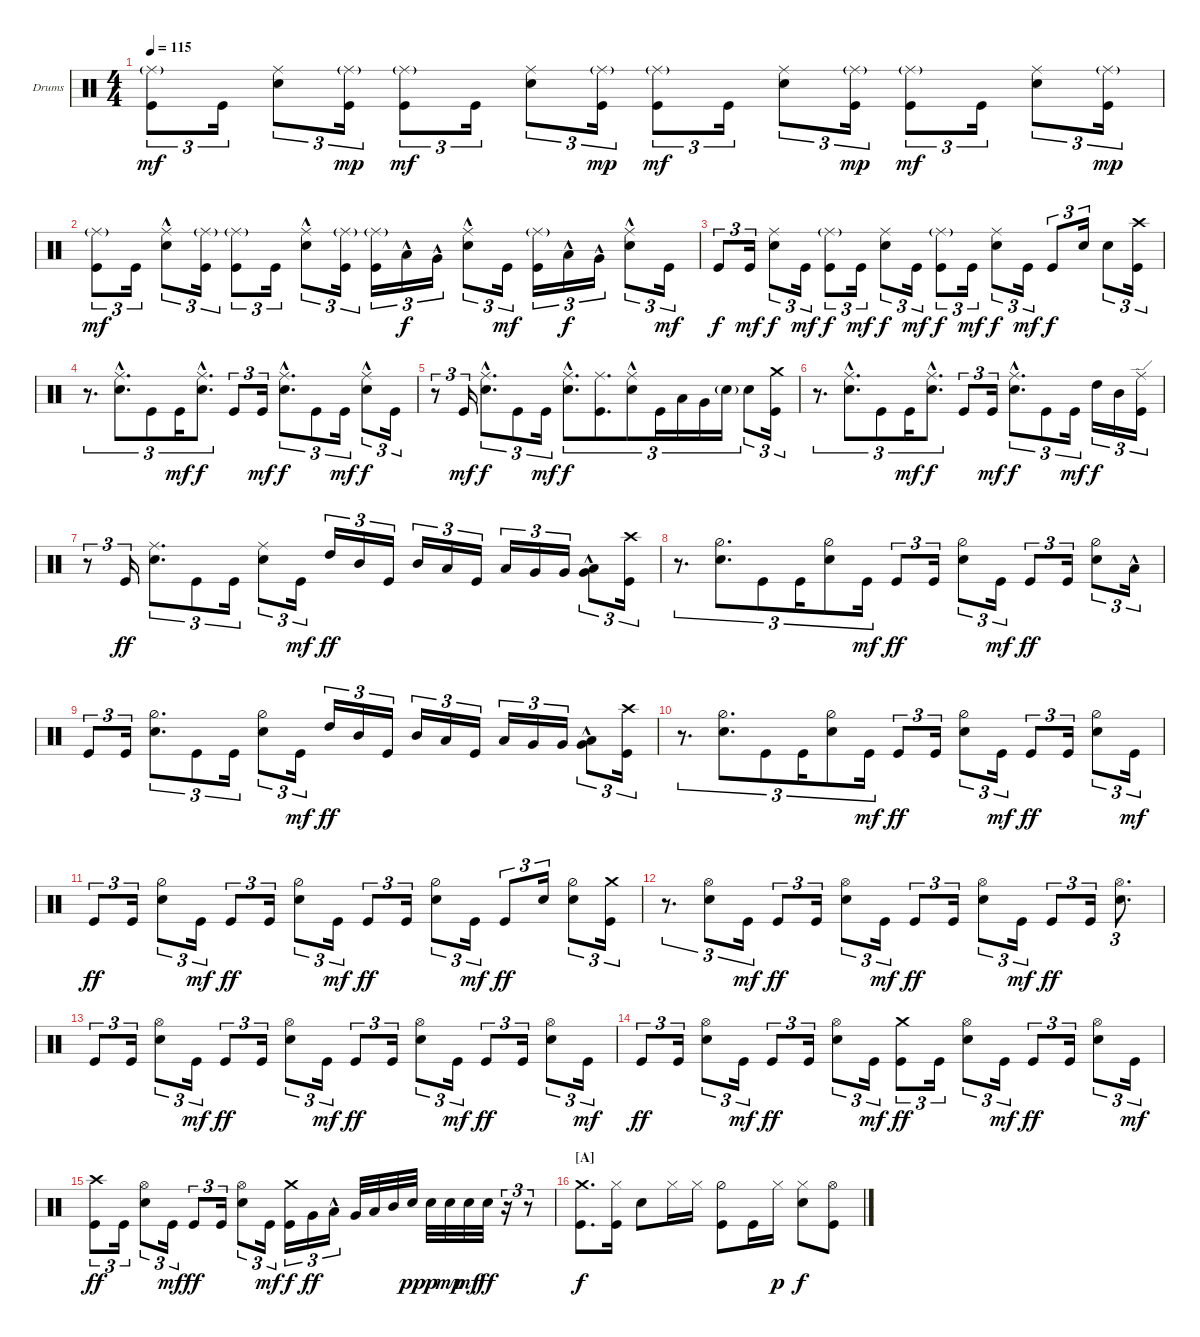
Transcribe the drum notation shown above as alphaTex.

\defaultSystemsLayout 4
\bracketExtendMode groupsimilarinstruments
\firstSystemTrackNameOrientation horizontal
\otherSystemsTrackNameOrientation horizontal
\track ("Batterie " "Drums") {instrument percussion}
\staff {score}
\articulation defaults
\ts (4 4)
\tempo 115
\clef neutral
\ks c
("Kick (hit)" "Ride (middle)"{g}).8{tu (3 2) dy mf} "Kick (hit)".16{tu (3 2)} ("Snare (hit) 2" "Ride (middle)").8{tu (3 2)} ("Kick (hit)" "Ride (middle)"{g}).16{tu (3 2) dy mp} ("Kick (hit)" "Ride (middle)"{g}).8{tu (3 2) dy mf} "Kick (hit)".16{tu (3 2)} ("Snare (hit) 2" "Ride (middle)").8{tu (3 2)} ("Kick (hit)" "Ride (middle)"{g}).16{tu (3 2) dy mp} ("Kick (hit)" "Ride (middle)"{g}).8{tu (3 2) dy mf} "Kick (hit)".16{tu (3 2)} ("Snare (hit) 2" "Ride (middle)").8{tu (3 2)} ("Kick (hit)" "Ride (middle)"{g}).16{tu (3 2) dy mp} ("Kick (hit)" "Ride (middle)"{g}).8{tu (3 2) dy mf} "Kick (hit)".16{tu (3 2)} ("Snare (hit) 2" "Ride (middle)").8{tu (3 2)} ("Kick (hit)" "Ride (middle)"{g}).16{tu (3 2) dy mp} |
("Kick (hit)" "Ride (middle)"{g}).8{tu (3 2) dy mf} "Kick (hit)".16{tu (3 2)} ("Snare (hit) 2" "Ride (middle)"{hac}).8{tu (3 2)} ("Kick (hit)" "Ride (middle)"{g}).16{tu (3 2)} ("Kick (hit)" "Ride (middle)"{g}).8{tu (3 2)} "Kick (hit)".16{tu (3 2)} ("Snare (hit) 2" "Ride (middle)"{hac}).8{tu (3 2)} ("Kick (hit)" "Ride (middle)"{g}).16{tu (3 2)} ("Kick (hit)" "Ride (middle)"{g}).16{tu (3 2)} "Low Tom (hit)"{hac}.16{tu (3 2) dy f} "Very Low Tom (hit)"{hac}.16{tu (3 2)} ("Snare (hit) 2" "Ride (middle)"{hac}).8{tu (3 2)} "Kick (hit)".16{tu (3 2) dy mf} ("Kick (hit)" "Ride (middle)"{g}).16{tu (3 2)} "Low Tom (hit)"{hac}.16{tu (3 2) dy f} "Very Low Tom (hit)"{hac}.16{tu (3 2)} ("Snare (hit) 2" "Ride (middle)"{hac}).8{tu (3 2)} "Kick (hit)".16{tu (3 2) dy mf} |
"Kick (hit)".8{tu (3 2) dy f} "Kick (hit)".16{tu (3 2) dy mf} ("Snare (hit) 2" "Ride (middle)").8{tu (3 2) dy f} "Kick (hit)".16{tu (3 2) dy mf} ("Kick (hit)" "Ride (middle)"{g}).8{tu (3 2) dy f} "Kick (hit)".16{tu (3 2) dy mf} ("Snare (hit) 2" "Ride (middle)").8{tu (3 2) dy f} "Kick (hit)".16{tu (3 2) dy mf} ("Kick (hit)" "Ride (middle)"{g}).8{tu (3 2) dy f} "Kick (hit)".16{tu (3 2) dy mf} ("Snare (hit) 2" "Ride (middle)").8{tu (3 2) dy f} "Kick (hit)".16{tu (3 2) dy mf} "Kick (hit)".8{tu (3 2) dy f} "Snare (hit) 2".16{tu (3 2)} "Snare (hit) 2".8{tu (3 2)} ("Kick (hit)" "Crash high (hit)").16{tu (3 2)} |
r.8{d tu (3 2)} ("Snare (hit) 2" "Ride (middle)"{hac}).8{d tu (3 2)} "Kick (hit)".8{tu (3 2)} "Kick (hit)".16{tu (3 2) dy mf} ("Snare (hit) 2" "Ride (middle)"{hac}).8{d tu (3 2) dy f} "Kick (hit)".8{tu (3 2)} "Kick (hit)".16{tu (3 2) dy mf} ("Snare (hit) 2" "Ride (middle)"{hac}).8{d tu (3 2) dy f} "Kick (hit)".8{tu (3 2)} "Kick (hit)".16{tu (3 2) dy mf} ("Snare (hit) 2" "Ride (middle)"{hac}).8{tu (3 2) dy f} "Kick (hit)".16{tu (3 2)} |
r.8{tu (3 2)} "Kick (hit)".16{tu (3 2) dy mf} ("Snare (hit) 2" "Ride (middle)"{hac}).8{d tu (3 2) dy f} "Kick (hit)".8{tu (3 2)} "Kick (hit)".16{tu (3 2) dy mf} ("Snare (hit) 2" "Ride (middle)"{hac}).8{d tu (3 2) dy f} ("Kick (hit)" "Ride (middle)").8{d tu (3 2)} ("Snare (hit) 2" "Ride (middle)"{hac}).8{tu (3 2)} "Kick (hit)".16{tu (3 2)} "Low Tom (hit)".16{tu (3 2)} "Very Low Tom (hit)".16{tu (3 2)} "Snare (hit) 2"{g}.16{tu (3 2)} "Snare (hit) 2".8{tu (3 2)} ("Kick (hit)" "Crash medium (hit)").16{tu (3 2)} |
r.8{d tu (3 2)} ("Snare (hit) 2" "Ride (middle)"{hac}).8{d tu (3 2)} "Kick (hit)".8{tu (3 2)} "Kick (hit)".16{tu (3 2) dy mf} ("Snare (hit) 2" "Ride (middle)"{hac}).8{d tu (3 2) dy f} "Kick (hit)".8{tu (3 2)} "Kick (hit)".16{tu (3 2) dy mf} ("Snare (hit) 2" "Ride (middle)"{hac}).8{d tu (3 2) dy f} "Kick (hit)".8{tu (3 2)} "Kick (hit)".16{tu (3 2) dy mf} "High Tom (hit)".16{tu (3 2) dy f} "Mid Tom (hit)".16{tu (3 2)} ("Kick (hit)" "Ride (edge)").16{tu (3 2)} |
r.8{tu (3 2)} "Kick (hit)".16{tu (3 2) dy ff} ("Snare (hit) 2" "Ride (middle)").8{d tu (3 2)} "Kick (hit)".8{tu (3 2)} "Kick (hit)".16{tu (3 2)} ("Snare (hit) 2" "Ride (middle)").8{tu (3 2)} "Kick (hit)".16{tu (3 2) dy mf} "High Tom (hit)".16{tu (3 2) dy ff} "Mid Tom (hit)".16{tu (3 2)} "Kick (hit)".16{tu (3 2)} "Mid Tom (hit)".16{tu (3 2)} "Low Tom (hit)".16{tu (3 2)} "Kick (hit)".16{tu (3 2)} "Low Tom (hit)".16{tu (3 2)} "Very Low Tom (hit)".16{tu (3 2)} "Very Low Tom (hit)".16{tu (3 2)} ("Low Tom (hit)"{hac} "Very Low Tom (hit)"{hac}).8{tu (3 2)} ("Kick (hit)" "Crash high (hit)").16{tu (3 2)} |
r.8{d tu (3 2)} ("Snare (hit) 2" "Hi-Hat (half)").8{d tu (3 2)} "Kick (hit)".8{tu (3 2)} "Kick (hit)".16{tu (3 2)} ("Snare (hit) 2" "Hi-Hat (half)").8{tu (3 2)} "Kick (hit)".16{tu (3 2) dy mf} "Kick (hit)".8{tu (3 2) dy ff} "Kick (hit)".16{tu (3 2)} ("Snare (hit) 2" "Hi-Hat (half)").8{tu (3 2)} "Kick (hit)".16{tu (3 2) dy mf} "Kick (hit)".8{tu (3 2) dy ff} "Kick (hit)".16{tu (3 2)} ("Snare (hit) 2" "Hi-Hat (half)").8{tu (3 2)} "Low Tom (hit)"{hac}.16{tu (3 2)} |
"Kick (hit)".8{tu (3 2)} "Kick (hit)".16{tu (3 2)} ("Snare (hit) 2" "Hi-Hat (half)").8{d tu (3 2)} "Kick (hit)".8{tu (3 2)} "Kick (hit)".16{tu (3 2)} ("Snare (hit) 2" "Hi-Hat (half)").8{tu (3 2)} "Kick (hit)".16{tu (3 2) dy mf} "High Tom (hit)".16{tu (3 2) dy ff} "Mid Tom (hit)".16{tu (3 2)} "Kick (hit)".16{tu (3 2)} "Mid Tom (hit)".16{tu (3 2)} "Low Tom (hit)".16{tu (3 2)} "Kick (hit)".16{tu (3 2)} "Low Tom (hit)".16{tu (3 2)} "Very Low Tom (hit)".16{tu (3 2)} "Very Low Tom (hit)".16{tu (3 2)} ("Low Tom (hit)"{hac} "Very Low Tom (hit)"{hac}).8{tu (3 2)} ("Kick (hit)" "Crash high (hit)").16{tu (3 2)} |
r.8{d tu (3 2)} ("Snare (hit) 2" "Hi-Hat (half)").8{d tu (3 2)} "Kick (hit)".8{tu (3 2)} "Kick (hit)".16{tu (3 2)} ("Snare (hit) 2" "Hi-Hat (half)").8{tu (3 2)} "Kick (hit)".16{tu (3 2) dy mf} "Kick (hit)".8{tu (3 2) dy ff} "Kick (hit)".16{tu (3 2)} ("Snare (hit) 2" "Hi-Hat (half)").8{tu (3 2)} "Kick (hit)".16{tu (3 2) dy mf} "Kick (hit)".8{tu (3 2) dy ff} "Kick (hit)".16{tu (3 2)} ("Snare (hit) 2" "Hi-Hat (half)").8{tu (3 2)} "Kick (hit)".16{tu (3 2) dy mf} |
"Kick (hit)".8{tu (3 2) dy ff} "Kick (hit)".16{tu (3 2)} ("Snare (hit) 2" "Hi-Hat (half)").8{tu (3 2)} "Kick (hit)".16{tu (3 2) dy mf} "Kick (hit)".8{tu (3 2) dy ff} "Kick (hit)".16{tu (3 2)} ("Snare (hit) 2" "Hi-Hat (half)").8{tu (3 2)} "Kick (hit)".16{tu (3 2) dy mf} "Kick (hit)".8{tu (3 2) dy ff} "Kick (hit)".16{tu (3 2)} ("Snare (hit) 2" "Hi-Hat (half)").8{tu (3 2)} "Kick (hit)".16{tu (3 2) dy mf} "Kick (hit)".8{tu (3 2) dy ff} "Snare (hit) 2".16{tu (3 2)} ("Snare (hit) 2" "Hi-Hat (half)").8{tu (3 2)} ("Kick (hit)" "Crash medium (hit)").16{tu (3 2)} |
r.8{d tu (3 2)} ("Snare (hit) 2" "Hi-Hat (open)").8{tu (3 2)} "Kick (hit)".16{tu (3 2) dy mf} "Kick (hit)".8{tu (3 2) dy ff} "Kick (hit)".16{tu (3 2)} ("Snare (hit) 2" "Hi-Hat (open)").8{tu (3 2)} "Kick (hit)".16{tu (3 2) dy mf} "Kick (hit)".8{tu (3 2) dy ff} "Kick (hit)".16{tu (3 2)} ("Snare (hit) 2" "Hi-Hat (open)").8{tu (3 2)} "Kick (hit)".16{tu (3 2) dy mf} "Kick (hit)".8{tu (3 2) dy ff} "Kick (hit)".16{tu (3 2)} ("Snare (hit) 2" "Hi-Hat (open)").8{d tu (3 2)} |
"Kick (hit)".8{tu (3 2)} "Kick (hit)".16{tu (3 2)} ("Snare (hit) 2" "Hi-Hat (open)").8{tu (3 2)} "Kick (hit)".16{tu (3 2) dy mf} "Kick (hit)".8{tu (3 2) dy ff} "Kick (hit)".16{tu (3 2)} ("Snare (hit) 2" "Hi-Hat (open)").8{tu (3 2)} "Kick (hit)".16{tu (3 2) dy mf} "Kick (hit)".8{tu (3 2) dy ff} "Kick (hit)".16{tu (3 2)} ("Snare (hit) 2" "Hi-Hat (open)").8{tu (3 2)} "Kick (hit)".16{tu (3 2) dy mf} "Kick (hit)".8{tu (3 2) dy ff} "Kick (hit)".16{tu (3 2)} ("Snare (hit) 2" "Hi-Hat (open)").8{tu (3 2)} "Kick (hit)".16{tu (3 2) dy mf} |
"Kick (hit)".8{tu (3 2) dy ff} "Kick (hit)".16{tu (3 2)} ("Snare (hit) 2" "Hi-Hat (open)").8{tu (3 2)} "Kick (hit)".16{tu (3 2) dy mf} "Kick (hit)".8{tu (3 2) dy ff} "Kick (hit)".16{tu (3 2)} ("Snare (hit) 2" "Hi-Hat (open)").8{tu (3 2)} "Kick (hit)".16{tu (3 2) dy mf} ("Kick (hit)" "Crash medium (hit)").8{tu (3 2) dy ff} "Kick (hit)".16{tu (3 2)} ("Snare (hit) 2" "Hi-Hat (open)").8{tu (3 2)} "Kick (hit)".16{tu (3 2) dy mf} "Kick (hit)".8{tu (3 2) dy ff} "Kick (hit)".16{tu (3 2)} ("Snare (hit) 2" "Hi-Hat (open)").8{tu (3 2)} "Kick (hit)".16{tu (3 2) dy mf} |
("Kick (hit)" "Crash high (hit)").8{tu (3 2) dy ff} "Kick (hit)".16{tu (3 2)} ("Snare (hit) 2" "Hi-Hat (open)").8{tu (3 2)} "Kick (hit)".16{tu (3 2) dy mf} "Kick (hit)".8{tu (3 2) dy ff} "Kick (hit)".16{tu (3 2)} ("Snare (hit) 2" "Hi-Hat (open)").8{tu (3 2)} "Kick (hit)".16{tu (3 2) dy mf} ("Kick (hit)" "Crash medium (hit)").16{tu (3 2) dy f} "Very Low Tom (hit)".16{tu (3 2) dy ff} "Low Tom (hit)"{hac}.16{tu (3 2)} "Very Low Tom (hit)".32 "Low Tom (hit)".32 "Mid Tom (hit)".32 "Snare (hit) 2".32{dy pp} "Snare (hit) 2".32{dy p} "Snare (hit) 2".32{dy mp} "Snare (hit) 2".32{dy mf} "Snare (hit) 2".32{dy ff} r.16{tu (3 2)} r.8{tu (3 2)} |
\section ("A" "")
("Kick (hit)" "Crash medium (hit)").8{d dy f} ("Kick (hit)" "Hi-Hat (closed)").16 "Snare (hit) 2".8 "Hi-Hat (closed)".16 "Hi-Hat (closed)".16 ("Hi-Hat (half)" "Kick (hit)").8 "Kick (hit)".16 "Hi-Hat (closed)".16{dy p} ("Snare (hit) 2" "Hi-Hat (closed)").8{dy f} ("Kick (hit)" "Hi-Hat (open)").8
